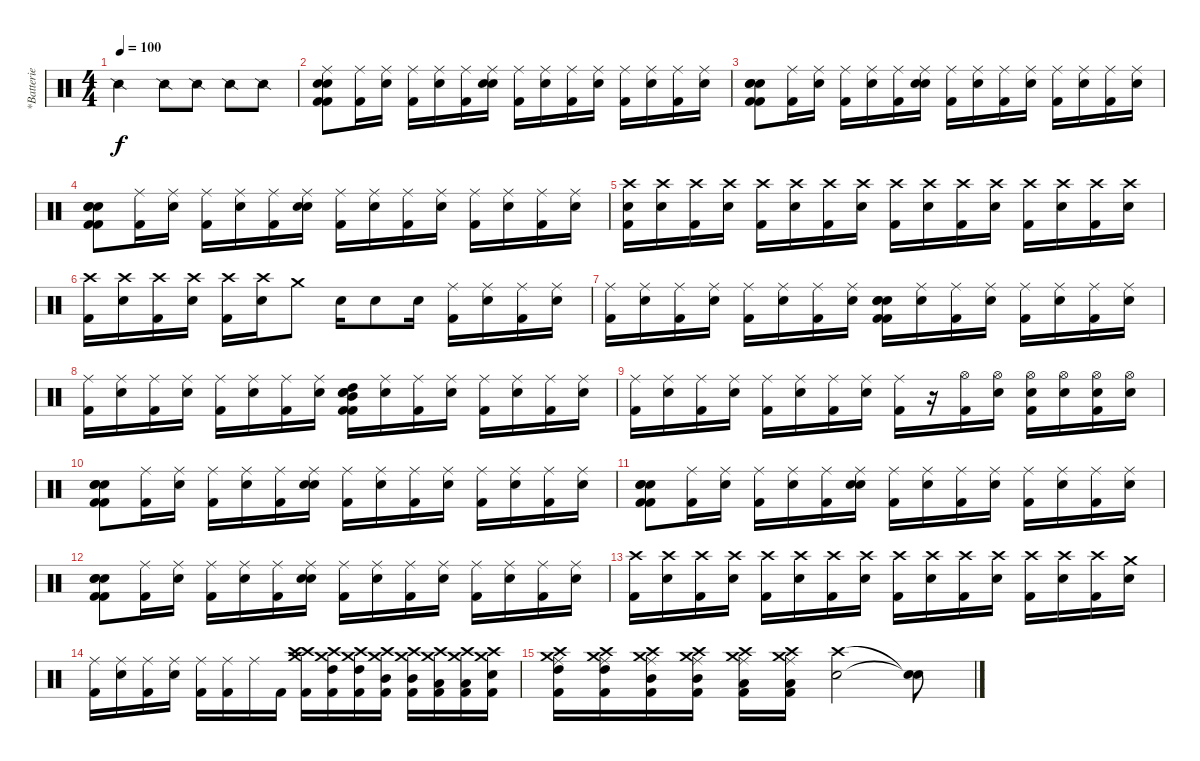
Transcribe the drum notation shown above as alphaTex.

\track ("*Batterie" "*Batterie") {instrument percussion}
\staff {score}
\articulation defaults
\ts (4 4)
\tempo 100
\clef neutral
\ks c "Snare (side stick) 2".2{dy f} "Snare (side stick) 2".8 "Snare (side stick) 2".8 "Snare (side stick) 2".8 "Snare (side stick) 2".8
|
("Ride (middle)" "Kick (hit) 2" "Electric Snare (hit)" "Kick (hit) 2" "Electric Snare (hit)").8 ("Ride (middle)" "Kick (hit) 2").16 ("Ride (middle)" "Electric Snare (hit)").16 ("Ride (middle)" "Kick (hit) 2").16 ("Ride (middle)" "Electric Snare (hit)").16 ("Ride (middle)" "Kick (hit) 2").16 ("Ride (middle)" "Electric Snare (hit)" "Snare (hit)").16 ("Ride (middle)" "Kick (hit) 2").16 ("Ride (middle)" "Electric Snare (hit)").16 ("Ride (middle)" "Kick (hit) 2").16 ("Ride (middle)" "Electric Snare (hit)").16 ("Ride (middle)" "Kick (hit) 2").16 ("Ride (middle)" "Electric Snare (hit)").16 ("Ride (middle)" "Kick (hit) 2").16 ("Ride (middle)" "Electric Snare (hit)").16 |
("Electric Snare (hit)" "Kick (hit) 2" "Electric Snare (hit)" "Kick (hit) 2" "Electric Snare (hit)").8 ("Ride (middle)" "Kick (hit) 2").16 ("Ride (middle)" "Electric Snare (hit)").16 ("Ride (middle)" "Kick (hit) 2").16 ("Ride (middle)" "Electric Snare (hit)").16 ("Ride (middle)" "Kick (hit) 2").16 ("Ride (middle)" "Electric Snare (hit)" "Snare (hit)").16 ("Ride (middle)" "Kick (hit) 2").16 ("Ride (middle)" "Electric Snare (hit)").16 ("Ride (middle)" "Kick (hit) 2").16 ("Ride (middle)" "Electric Snare (hit)").16 ("Ride (middle)" "Kick (hit) 2").16 ("Ride (middle)" "Electric Snare (hit)").16 ("Ride (middle)" "Kick (hit) 2").16 ("Ride (middle)" "Electric Snare (hit)").16 |
("Electric Snare (hit)" "Kick (hit) 2" "Electric Snare (hit)" "Kick (hit) 2" "Electric Snare (hit)").8 ("Ride (middle)" "Kick (hit) 2").16 ("Ride (middle)" "Electric Snare (hit)").16 ("Ride (middle)" "Kick (hit) 2").16 ("Ride (middle)" "Electric Snare (hit)").16 ("Ride (middle)" "Kick (hit) 2").16 ("Ride (middle)" "Electric Snare (hit)" "Snare (hit)").16 ("Ride (middle)" "Kick (hit) 2").16 ("Ride (middle)" "Electric Snare (hit)").16 ("Ride (middle)" "Kick (hit) 2").16 ("Ride (middle)" "Electric Snare (hit)").16 ("Ride (middle)" "Kick (hit) 2").16 ("Ride (middle)" "Electric Snare (hit)").16 ("Ride (middle)" "Kick (hit) 2").16 ("Ride (middle)" "Electric Snare (hit)").16 |
("Snare (hit)" "Crash high (hit)" "Kick (hit) 2").16 ("Crash high (hit)" "Electric Snare (hit)").16 ("Crash high (hit)" "Kick (hit) 2").16 ("Crash high (hit)" "Electric Snare (hit)").16 ("Crash high (hit)" "Kick (hit) 2").16 ("Crash high (hit)" "Electric Snare (hit)").16 ("Crash high (hit)" "Kick (hit) 2").16 ("Crash high (hit)" "Electric Snare (hit)").16 ("Crash high (hit)" "Kick (hit) 2").16 ("Crash high (hit)" "Electric Snare (hit)").16 ("Crash high (hit)" "Kick (hit) 2").16 ("Crash high (hit)" "Electric Snare (hit)").16 ("Crash high (hit)" "Kick (hit) 2").16 ("Crash high (hit)" "Electric Snare (hit)").16 ("Crash high (hit)" "Kick (hit) 2").16 ("Crash high (hit)" "Electric Snare (hit)").16 |
("Crash high (hit)" "Kick (hit) 2").16 ("Crash high (hit)" "Electric Snare (hit)").16 ("Crash high (hit)" "Kick (hit) 2").16 ("Crash high (hit)" "Electric Snare (hit)").16 ("Crash high (hit)" "Kick (hit) 2").16 ("Crash high (hit)" "Electric Snare (hit)").16 "Crash medium (hit)".8 "Electric Snare (hit)".16 "Electric Snare (hit)".8 "Electric Snare (hit)".16 ("Ride (middle)" "Kick (hit) 2").16 ("Ride (middle)" "Electric Snare (hit)").16 ("Ride (middle)" "Kick (hit) 2").16 ("Ride (middle)" "Electric Snare (hit)").16 |
("Ride (middle)" "Kick (hit) 2").16 ("Ride (middle)" "Electric Snare (hit)").16 ("Ride (middle)" "Kick (hit) 2").16 ("Ride (middle)" "Electric Snare (hit)").16 ("Ride (middle)" "Kick (hit) 2").16 ("Ride (middle)" "Electric Snare (hit)").16 ("Ride (middle)" "Kick (hit) 2").16 ("Ride (middle)" "Electric Snare (hit)").16 ("Electric Snare (hit)" "Kick (hit) 2" "Electric Snare (hit)" "Electric Snare (hit)" "Kick (hit) 2").16 ("Ride (middle)" "Electric Snare (hit)").16 ("Ride (middle)" "Kick (hit) 2").16 ("Ride (middle)" "Electric Snare (hit)").16 ("Ride (middle)" "Kick (hit) 2").16 ("Ride (middle)" "Electric Snare (hit)").16 ("Ride (middle)" "Kick (hit) 2").16 ("Ride (middle)" "Electric Snare (hit)").16 |
("Ride (middle)" "Kick (hit) 2").16 ("Ride (middle)" "Electric Snare (hit)").16 ("Ride (middle)" "Kick (hit) 2").16 ("Ride (middle)" "Electric Snare (hit)").16 ("Ride (middle)" "Kick (hit) 2").16 ("Ride (middle)" "Electric Snare (hit)").16 ("Ride (middle)" "Kick (hit) 2").16 ("Ride (middle)" "Electric Snare (hit)").16 ("Mid Tom (hit)" "High Tom (hit)" "Electric Snare (hit)" "Kick (hit) 2" "Electric Snare (hit)" "Kick (hit) 2").16 ("Ride (middle)" "Electric Snare (hit)").16 ("Ride (middle)" "Kick (hit) 2").16 ("Ride (middle)" "Electric Snare (hit)").16 ("Ride (middle)" "Kick (hit) 2").16 ("Ride (middle)" "Electric Snare (hit)").16 ("Ride (middle)" "Kick (hit) 2").16 ("Ride (middle)" "Electric Snare (hit)").16 |
("Ride (middle)" "Kick (hit) 2").16 ("Ride (middle)" "Electric Snare (hit)").16 ("Ride (middle)" "Kick (hit) 2").16 ("Ride (middle)" "Electric Snare (hit)").16 ("Ride (middle)" "Kick (hit) 2").16 ("Ride (middle)" "Electric Snare (hit)").16 ("Ride (middle)" "Kick (hit) 2").16 ("Ride (middle)" "Electric Snare (hit)").16 ("Ride (middle)" "Kick (hit) 2").16 r.16 ("Hi-Hat (open)" "Kick (hit) 2"{x}).16 ("Hi-Hat (open)" "Electric Snare (hit)"{x}).16 ("Hi-Hat (open)" "Snare (hit)"{x} "Kick (hit) 2"{x}).16 ("Hi-Hat (open)" "Electric Snare (hit)"{x}).16 ("Hi-Hat (open)" "Snare (hit)"{x} "Kick (hit) 2"{x}).16 ("Hi-Hat (open)" "Electric Snare (hit)"{x}).16 |
("Electric Snare (hit)" "Kick (hit) 2" "Electric Snare (hit)" "Kick (hit) 2" "Electric Snare (hit)").8 ("Ride (middle)" "Kick (hit) 2").16 ("Ride (middle)" "Electric Snare (hit)").16 ("Ride (middle)" "Kick (hit) 2").16 ("Ride (middle)" "Electric Snare (hit)").16 ("Ride (middle)" "Kick (hit) 2").16 ("Ride (middle)" "Electric Snare (hit)" "Snare (hit)").16 ("Ride (middle)" "Kick (hit) 2").16 ("Ride (middle)" "Electric Snare (hit)").16 ("Ride (middle)" "Kick (hit) 2").16 ("Ride (middle)" "Electric Snare (hit)").16 ("Ride (middle)" "Kick (hit) 2").16 ("Ride (middle)" "Electric Snare (hit)").16 ("Ride (middle)" "Kick (hit) 2").16 ("Ride (middle)" "Electric Snare (hit)").16 |
("Electric Snare (hit)" "Kick (hit) 2" "Electric Snare (hit)" "Kick (hit) 2" "Electric Snare (hit)").8 ("Ride (middle)" "Kick (hit) 2").16 ("Ride (middle)" "Electric Snare (hit)").16 ("Ride (middle)" "Kick (hit) 2").16 ("Ride (middle)" "Electric Snare (hit)").16 ("Ride (middle)" "Kick (hit) 2").16 ("Ride (middle)" "Electric Snare (hit)" "Snare (hit)").16 ("Ride (middle)" "Kick (hit) 2").16 ("Ride (middle)" "Electric Snare (hit)").16 ("Ride (middle)" "Kick (hit) 2").16 ("Ride (middle)" "Electric Snare (hit)").16 ("Ride (middle)" "Kick (hit) 2").16 ("Ride (middle)" "Electric Snare (hit)").16 ("Ride (middle)" "Kick (hit) 2").16 ("Ride (middle)" "Electric Snare (hit)").16 |
("Electric Snare (hit)" "Kick (hit) 2" "Electric Snare (hit)" "Kick (hit) 2" "Electric Snare (hit)").8 ("Ride (middle)" "Kick (hit) 2").16 ("Ride (middle)" "Electric Snare (hit)").16 ("Ride (middle)" "Kick (hit) 2").16 ("Ride (middle)" "Electric Snare (hit)").16 ("Ride (middle)" "Kick (hit) 2").16 ("Ride (middle)" "Electric Snare (hit)" "Snare (hit)").16 ("Ride (middle)" "Kick (hit) 2").16 ("Ride (middle)" "Electric Snare (hit)").16 ("Ride (middle)" "Kick (hit) 2").16 ("Ride (middle)" "Electric Snare (hit)").16 ("Ride (middle)" "Kick (hit) 2").16 ("Ride (middle)" "Electric Snare (hit)").16 ("Ride (middle)" "Kick (hit) 2").16 ("Ride (middle)" "Electric Snare (hit)").16 |
("Crash high (hit)" "Kick (hit) 2").16 ("Crash high (hit)" "Electric Snare (hit)").16 ("Crash high (hit)" "Kick (hit) 2").16 ("Crash high (hit)" "Electric Snare (hit)").16 ("Crash high (hit)" "Kick (hit) 2").16 ("Crash high (hit)" "Electric Snare (hit)").16 ("Crash high (hit)" "Kick (hit) 2").16 ("Crash high (hit)" "Electric Snare (hit)").16 ("Crash high (hit)" "Kick (hit) 2").16 ("Crash high (hit)" "Electric Snare (hit)").16 ("Crash high (hit)" "Kick (hit) 2").16 ("Crash high (hit)" "Electric Snare (hit)").16 ("Crash high (hit)" "Kick (hit) 2").16 ("Crash high (hit)" "Electric Snare (hit)").16 ("Crash high (hit)" "Kick (hit) 2").16 ("Crash medium (hit)" "Electric Snare (hit)").16 |
("Ride (middle)" "Kick (hit) 2").16 ("Ride (middle)" "Electric Snare (hit)").16 ("Ride (middle)" "Kick (hit) 2").16 ("Ride (middle)" "Electric Snare (hit)").16 ("Ride (middle)" "Kick (hit) 2").16 ("Ride (middle)" "Kick (hit) 2").16 "Ride (middle)".16 "Kick (hit) 2".16 ("Crash high (hit)" "Crash high (hit)" "Crash medium (hit)" "Kick (hit) 2").16 ("Crash high (hit)" "High Tom (hit)" "Crash medium (hit)" "Kick (hit) 2").16 ("Crash high (hit)" "High Tom (hit)" "Crash medium (hit)" "Kick (hit) 2").16 ("Crash high (hit)" "Mid Tom (hit)" "Crash medium (hit)" "Kick (hit) 2").16 ("Crash high (hit)" "Mid Tom (hit)" "Crash medium (hit)" "Kick (hit) 2").16 ("Crash high (hit)" "Low Tom (hit)" "Crash medium (hit)" "Kick (hit) 2").16 ("Crash high (hit)" "Low Tom (hit)" "Crash medium (hit)" "Kick (hit) 2").16 ("Crash high (hit)" "Electric Snare (hit)" "Crash medium (hit)" "Kick (hit) 2").16 |
("Crash medium (hit)" "High Tom (hit)" "Crash high (hit)" "Ride (middle)" "Kick (hit) 2").16 ("Crash medium (hit)" "High Tom (hit)" "Crash high (hit)" "Ride (middle)" "Kick (hit) 2").16 ("Crash medium (hit)" "Mid Tom (hit)" "Crash high (hit)" "Ride (middle)" "Kick (hit) 2").16 ("Crash medium (hit)" "Mid Tom (hit)" "Crash high (hit)" "Ride (middle)" "Kick (hit) 2").16 ("Crash medium (hit)" "Low Tom (hit)" "Crash high (hit)" "Ride (middle)" "Kick (hit) 2").16 ("Crash medium (hit)" "Low Tom (hit)" "Crash high (hit)" "Ride (middle)" "Kick (hit) 2").16 ("Crash high (hit)" "Electric Snare (hit)").2 ("Snare (hit)"{t} "Snare (hit)"{t}).8
